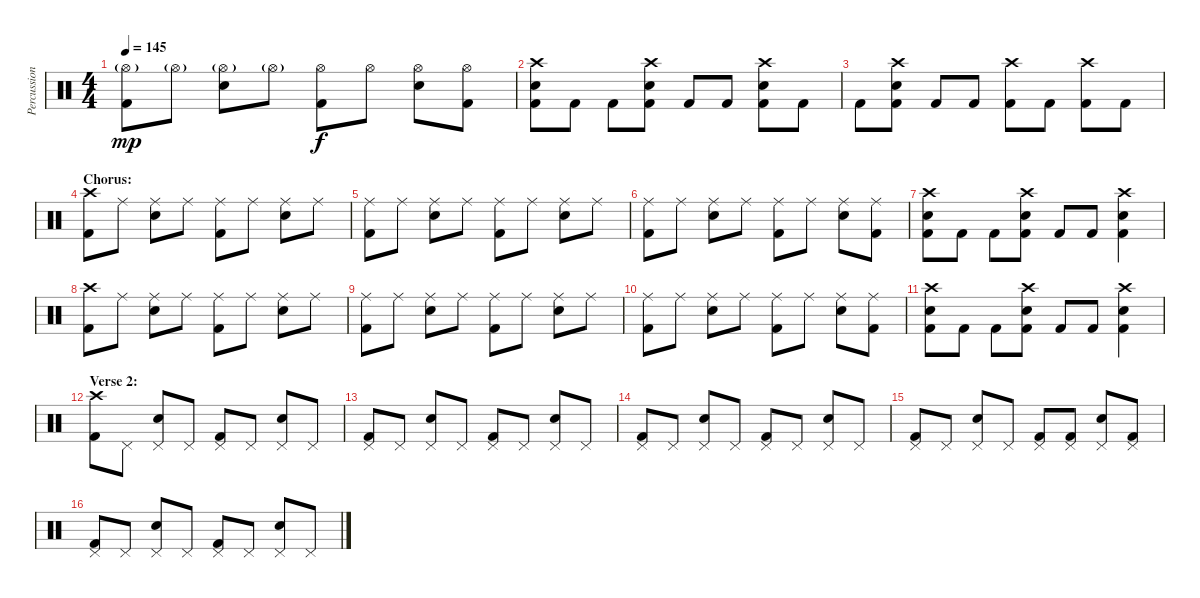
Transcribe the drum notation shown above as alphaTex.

\track ("Percussion" "Percussion") {instrument percussion}
\staff {score}
\articulation defaults
\ts (4 4)
\tempo 145
\clef neutral
\ks c
("Hi-Hat (open)"{g} "Kick (hit) 2").8{dy mp} "Hi-Hat (open)"{g}.8 ("Hi-Hat (open)"{g} "Electric Snare (hit)").8 "Hi-Hat (open)"{g}.8 ("Hi-Hat (open)" "Kick (hit) 2").8{dy f} "Hi-Hat (open)".8 ("Hi-Hat (open)" "Electric Snare (hit)").8 ("Hi-Hat (open)" "Kick (hit) 2").8 |
("Crash high (hit)" "Electric Snare (hit)" "Kick (hit) 2").8 "Kick (hit) 2".8 "Kick (hit) 2".8 ("Crash high (hit)" "Electric Snare (hit)" "Kick (hit) 2").8 "Kick (hit) 2".8 "Kick (hit) 2".8 ("Crash high (hit)" "Electric Snare (hit)" "Kick (hit) 2").8 "Kick (hit) 2".8 |
"Kick (hit) 2".8 ("Crash high (hit)" "Electric Snare (hit)" "Kick (hit) 2").8 "Kick (hit) 2".8 "Kick (hit) 2".8 ("Crash high (hit)" "Kick (hit) 2").8 "Kick (hit) 2".8 ("Crash high (hit)" "Kick (hit) 2").8 "Kick (hit) 2".8 |
\section ("" "Chorus:")
("Crash high (hit)" "Kick (hit) 2").8 "Ride (middle)".8 ("Ride (middle)" "Electric Snare (hit)").8 "Ride (middle)".8 ("Ride (middle)" "Kick (hit) 2").8 "Ride (middle)".8 ("Ride (middle)" "Electric Snare (hit)").8 "Ride (middle)".8 |
("Ride (middle)" "Kick (hit) 2").8 "Ride (middle)".8 ("Ride (middle)" "Electric Snare (hit)").8 "Ride (middle)".8 ("Ride (middle)" "Kick (hit) 2").8 "Ride (middle)".8 ("Ride (middle)" "Electric Snare (hit)").8 "Ride (middle)".8 |
("Ride (middle)" "Kick (hit) 2").8 "Ride (middle)".8 ("Ride (middle)" "Electric Snare (hit)").8 "Ride (middle)".8 ("Ride (middle)" "Kick (hit) 2").8 "Ride (middle)".8 ("Ride (middle)" "Electric Snare (hit)").8 ("Ride (middle)" "Kick (hit) 2").8 |
("Crash high (hit)" "Electric Snare (hit)" "Kick (hit) 2").8 "Kick (hit) 2".8 "Kick (hit) 2".8 ("Crash high (hit)" "Electric Snare (hit)" "Kick (hit) 2").8 "Kick (hit) 2".8 "Kick (hit) 2".8 ("Crash high (hit)" "Electric Snare (hit)" "Kick (hit) 2").4 |
("Crash high (hit)" "Kick (hit) 2").8 "Ride (middle)".8 ("Ride (middle)" "Electric Snare (hit)").8 "Ride (middle)".8 ("Ride (middle)" "Kick (hit) 2").8 "Ride (middle)".8 ("Ride (middle)" "Electric Snare (hit)").8 "Ride (middle)".8 |
("Ride (middle)" "Kick (hit) 2").8 "Ride (middle)".8 ("Ride (middle)" "Electric Snare (hit)").8 "Ride (middle)".8 ("Ride (middle)" "Kick (hit) 2").8 "Ride (middle)".8 ("Ride (middle)" "Electric Snare (hit)").8 "Ride (middle)".8 |
("Ride (middle)" "Kick (hit) 2").8 "Ride (middle)".8 ("Ride (middle)" "Electric Snare (hit)").8 "Ride (middle)".8 ("Ride (middle)" "Kick (hit) 2").8 "Ride (middle)".8 ("Ride (middle)" "Electric Snare (hit)").8 ("Ride (middle)" "Kick (hit) 2").8 |
("Crash high (hit)" "Electric Snare (hit)" "Kick (hit) 2").8 "Kick (hit) 2".8 "Kick (hit) 2".8 ("Crash high (hit)" "Electric Snare (hit)" "Kick (hit) 2").8 "Kick (hit) 2".8 "Kick (hit) 2".8 ("Crash high (hit)" "Electric Snare (hit)" "Kick (hit) 2").4 |
\section ("" "Verse 2:")
("Crash high (hit)" "Kick (hit) 2").8 "Pedal Hi-Hat (hit)".8 ("Pedal Hi-Hat (hit)" "Electric Snare (hit)").8 "Pedal Hi-Hat (hit)".8 ("Pedal Hi-Hat (hit)" "Kick (hit) 2").8 "Pedal Hi-Hat (hit)".8 ("Pedal Hi-Hat (hit)" "Electric Snare (hit)").8 "Pedal Hi-Hat (hit)".8 |
("Pedal Hi-Hat (hit)" "Kick (hit) 2").8 "Pedal Hi-Hat (hit)".8 ("Pedal Hi-Hat (hit)" "Electric Snare (hit)").8 "Pedal Hi-Hat (hit)".8 ("Pedal Hi-Hat (hit)" "Kick (hit) 2").8 "Pedal Hi-Hat (hit)".8 ("Pedal Hi-Hat (hit)" "Electric Snare (hit)").8 "Pedal Hi-Hat (hit)".8 |
("Pedal Hi-Hat (hit)" "Kick (hit) 2").8 "Pedal Hi-Hat (hit)".8 ("Pedal Hi-Hat (hit)" "Electric Snare (hit)").8 "Pedal Hi-Hat (hit)".8 ("Pedal Hi-Hat (hit)" "Kick (hit) 2").8 "Pedal Hi-Hat (hit)".8 ("Pedal Hi-Hat (hit)" "Electric Snare (hit)").8 "Pedal Hi-Hat (hit)".8 |
("Pedal Hi-Hat (hit)" "Kick (hit) 2").8 "Pedal Hi-Hat (hit)".8 ("Pedal Hi-Hat (hit)" "Electric Snare (hit)").8 "Pedal Hi-Hat (hit)".8 ("Pedal Hi-Hat (hit)" "Kick (hit) 2").8 ("Pedal Hi-Hat (hit)" "Kick (hit) 2").8 ("Pedal Hi-Hat (hit)" "Electric Snare (hit)").8 ("Pedal Hi-Hat (hit)" "Kick (hit) 2").8 |
("Pedal Hi-Hat (hit)" "Kick (hit) 2").8 "Pedal Hi-Hat (hit)".8 ("Pedal Hi-Hat (hit)" "Electric Snare (hit)").8 "Pedal Hi-Hat (hit)".8 ("Pedal Hi-Hat (hit)" "Kick (hit) 2").8 "Pedal Hi-Hat (hit)".8 ("Pedal Hi-Hat (hit)" "Electric Snare (hit)").8 "Pedal Hi-Hat (hit)".8
